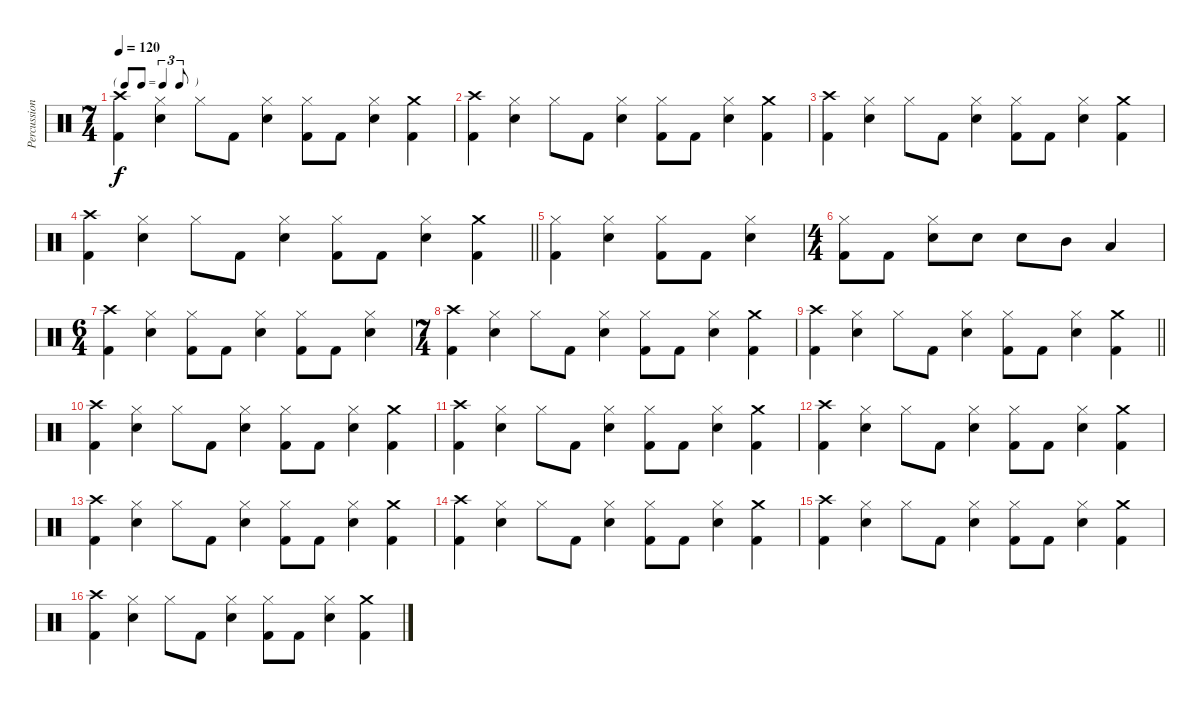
\track ("Percussion" "Percussion") {instrument percussion}
\staff {score}
\articulation defaults
\ts (7 4)
\tf triplet8th
\tempo 120
\clef neutral
\ks c
("Crash high (hit)" "Kick (hit) 2").4{dy f} ("Hi-Hat (closed)" "Electric Snare (hit)").4 "Hi-Hat (closed)".8 "Kick (hit) 2".8 ("Hi-Hat (closed)" "Electric Snare (hit)").4 ("Hi-Hat (closed)" "Kick (hit) 2").8 "Kick (hit) 2".8 ("Hi-Hat (closed)" "Electric Snare (hit)").4 ("Crash medium (hit)" "Kick (hit) 2").4 |
("Crash high (hit)" "Kick (hit) 2").4 ("Hi-Hat (closed)" "Electric Snare (hit)").4 "Hi-Hat (closed)".8 "Kick (hit) 2".8 ("Hi-Hat (closed)" "Electric Snare (hit)").4 ("Hi-Hat (closed)" "Kick (hit) 2").8 "Kick (hit) 2".8 ("Hi-Hat (closed)" "Electric Snare (hit)").4 ("Crash medium (hit)" "Kick (hit) 2").4 |
("Crash high (hit)" "Kick (hit) 2").4 ("Hi-Hat (closed)" "Electric Snare (hit)").4 "Hi-Hat (closed)".8 "Kick (hit) 2".8 ("Hi-Hat (closed)" "Electric Snare (hit)").4 ("Hi-Hat (closed)" "Kick (hit) 2").8 "Kick (hit) 2".8 ("Hi-Hat (closed)" "Electric Snare (hit)").4 ("Crash medium (hit)" "Kick (hit) 2").4 |
\barLineRight lightlight
("Crash high (hit)" "Kick (hit) 2").4 ("Hi-Hat (closed)" "Electric Snare (hit)").4 "Hi-Hat (closed)".8 "Kick (hit) 2".8 ("Hi-Hat (closed)" "Electric Snare (hit)").4 ("Hi-Hat (closed)" "Kick (hit) 2").8 "Kick (hit) 2".8 ("Hi-Hat (closed)" "Electric Snare (hit)").4 ("Crash medium (hit)" "Kick (hit) 2").4 |
("Hi-Hat (closed)" "Kick (hit) 2").4 ("Hi-Hat (closed)" "Electric Snare (hit)").4 ("Hi-Hat (closed)" "Kick (hit) 2").8 "Kick (hit) 2".8 ("Hi-Hat (closed)" "Electric Snare (hit)").4 |
\ts (4 4)
("Hi-Hat (closed)" "Kick (hit) 2").8 "Kick (hit) 2".8 ("Hi-Hat (closed)" "Electric Snare (hit)").8 "Electric Snare (hit)".8 "Electric Snare (hit)".8 "Mid Tom (hit)".8 "Low Tom (hit)".4 |
\ts (6 4)
("Crash high (hit)" "Kick (hit) 2").4 ("Hi-Hat (closed)" "Electric Snare (hit)").4 ("Hi-Hat (closed)" "Kick (hit) 2").8 "Kick (hit) 2".8 ("Hi-Hat (closed)" "Electric Snare (hit)").4 ("Hi-Hat (closed)" "Kick (hit) 2").8 "Kick (hit) 2".8 ("Hi-Hat (closed)" "Electric Snare (hit)").4 |
\ts (7 4)
("Crash high (hit)" "Kick (hit) 2").4 ("Hi-Hat (closed)" "Electric Snare (hit)").4 "Hi-Hat (closed)".8 "Kick (hit) 2".8 ("Hi-Hat (closed)" "Electric Snare (hit)").4 ("Hi-Hat (closed)" "Kick (hit) 2").8 "Kick (hit) 2".8 ("Hi-Hat (closed)" "Electric Snare (hit)").4 ("Crash medium (hit)" "Kick (hit) 2").4 |
\barLineRight lightlight
("Crash high (hit)" "Kick (hit) 2").4 ("Hi-Hat (closed)" "Electric Snare (hit)").4 "Hi-Hat (closed)".8 "Kick (hit) 2".8 ("Hi-Hat (closed)" "Electric Snare (hit)").4 ("Hi-Hat (closed)" "Kick (hit) 2").8 "Kick (hit) 2".8 ("Hi-Hat (closed)" "Electric Snare (hit)").4 ("Crash medium (hit)" "Kick (hit) 2").4 |
("Crash high (hit)" "Kick (hit) 2").4 ("Hi-Hat (closed)" "Electric Snare (hit)").4 "Hi-Hat (closed)".8 "Kick (hit) 2".8 ("Hi-Hat (closed)" "Electric Snare (hit)").4 ("Hi-Hat (closed)" "Kick (hit) 2").8 "Kick (hit) 2".8 ("Hi-Hat (closed)" "Electric Snare (hit)").4 ("Crash medium (hit)" "Kick (hit) 2").4 |
("Crash high (hit)" "Kick (hit) 2").4 ("Hi-Hat (closed)" "Electric Snare (hit)").4 "Hi-Hat (closed)".8 "Kick (hit) 2".8 ("Hi-Hat (closed)" "Electric Snare (hit)").4 ("Hi-Hat (closed)" "Kick (hit) 2").8 "Kick (hit) 2".8 ("Hi-Hat (closed)" "Electric Snare (hit)").4 ("Crash medium (hit)" "Kick (hit) 2").4 |
("Crash high (hit)" "Kick (hit) 2").4 ("Hi-Hat (closed)" "Electric Snare (hit)").4 "Hi-Hat (closed)".8 "Kick (hit) 2".8 ("Hi-Hat (closed)" "Electric Snare (hit)").4 ("Hi-Hat (closed)" "Kick (hit) 2").8 "Kick (hit) 2".8 ("Hi-Hat (closed)" "Electric Snare (hit)").4 ("Crash medium (hit)" "Kick (hit) 2").4 |
("Crash high (hit)" "Kick (hit) 2").4 ("Hi-Hat (closed)" "Electric Snare (hit)").4 "Hi-Hat (closed)".8 "Kick (hit) 2".8 ("Hi-Hat (closed)" "Electric Snare (hit)").4 ("Hi-Hat (closed)" "Kick (hit) 2").8 "Kick (hit) 2".8 ("Hi-Hat (closed)" "Electric Snare (hit)").4 ("Crash medium (hit)" "Kick (hit) 2").4 |
("Crash high (hit)" "Kick (hit) 2").4 ("Hi-Hat (closed)" "Electric Snare (hit)").4 "Hi-Hat (closed)".8 "Kick (hit) 2".8 ("Hi-Hat (closed)" "Electric Snare (hit)").4 ("Hi-Hat (closed)" "Kick (hit) 2").8 "Kick (hit) 2".8 ("Hi-Hat (closed)" "Electric Snare (hit)").4 ("Crash medium (hit)" "Kick (hit) 2").4 |
("Crash high (hit)" "Kick (hit) 2").4 ("Hi-Hat (closed)" "Electric Snare (hit)").4 "Hi-Hat (closed)".8 "Kick (hit) 2".8 ("Hi-Hat (closed)" "Electric Snare (hit)").4 ("Hi-Hat (closed)" "Kick (hit) 2").8 "Kick (hit) 2".8 ("Hi-Hat (closed)" "Electric Snare (hit)").4 ("Crash medium (hit)" "Kick (hit) 2").4 |
("Crash high (hit)" "Kick (hit) 2").4 ("Hi-Hat (closed)" "Electric Snare (hit)").4 "Hi-Hat (closed)".8 "Kick (hit) 2".8 ("Hi-Hat (closed)" "Electric Snare (hit)").4 ("Hi-Hat (closed)" "Kick (hit) 2").8 "Kick (hit) 2".8 ("Hi-Hat (closed)" "Electric Snare (hit)").4 ("Crash medium (hit)" "Kick (hit) 2").4
